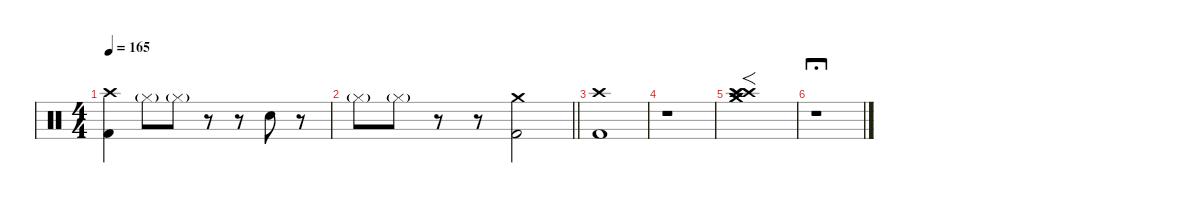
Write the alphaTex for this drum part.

\defaultSystemsLayout 4
\hideDynamics
\bracketExtendMode nobrackets
\singleTrackTrackNamePolicy hidden
\multiTrackTrackNamePolicy hidden
\firstSystemTrackNameMode fullname
\otherSystemsTrackNameOrientation horizontal
\track ("Marty Chapman (Drums)" "drm.") {instrument percussion}
\staff {score}
\articulation defaults
\ts (4 4)
\tempo 165
\clef neutral
\ks c
("Crash high (hit)" "Kick (hit) 2").4{dy f beam Down} "Hi-Hat (closed)"{g}.8{beam Down} "Hi-Hat (closed)"{g}.8{beam Down} r.8{beam Down} r.8{beam Down} "Snare (hit) 2".8{beam Down} r.8{beam Down} |
\barLineRight lightlight "Hi-Hat (closed)"{g}.8{beam Down} "Hi-Hat (closed)"{g}.8{beam Down}
r.8{beam Down} r.8{beam Down} ("Crash medium (hit)" "Kick (hit) 2").2{beam Down} |
("Crash high (hit)" "Kick (hit) 2").1{beam Down} |
r.1{beam Down} |
("Crash high (hit)" "Crash medium (hit)" "Splash (hit)" "Crash high (hit)" "Crash medium (hit)" "Splash (hit)").1{f dy fff beam Down} |
r.1{fermata (long 1) beam Down}
